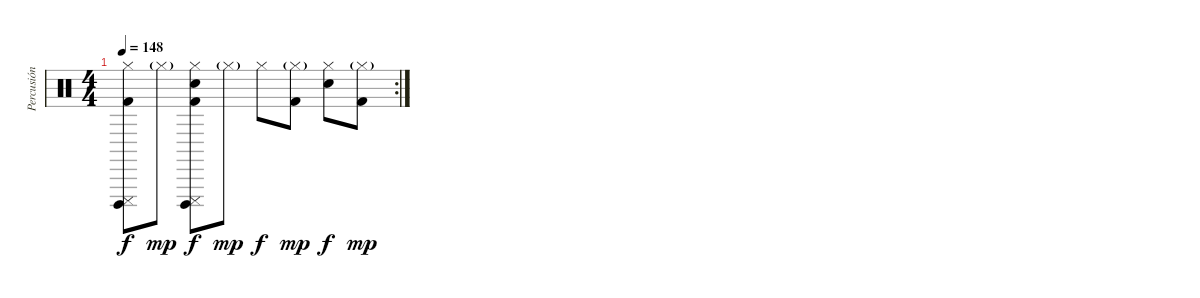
\track ("Percusión" "Percusión") {instrument percussion}
\staff {score}
\articulation defaults
\rc 2
\ts (4 4)
\tempo 148
\clef neutral
\ks c
("Hi-Hat (closed)" "Cuica (open)" "Cuica (mute)" "Kick (hit) 2").8{dy f} "Hi-Hat (closed)"{g}.8{dy mp} ("Hi-Hat (closed)" "Cuica (open)" "Cuica (mute)" "Snare (hit) 2" "Kick (hit) 2").8{dy f} "Hi-Hat (closed)"{g}.8{dy mp} "Hi-Hat (closed)".8{dy f} ("Hi-Hat (closed)"{g} "Kick (hit) 2").8{dy mp} ("Hi-Hat (closed)" "Snare (hit) 2").8{dy f} ("Hi-Hat (closed)"{g} "Kick (hit) 2").8{dy mp}
